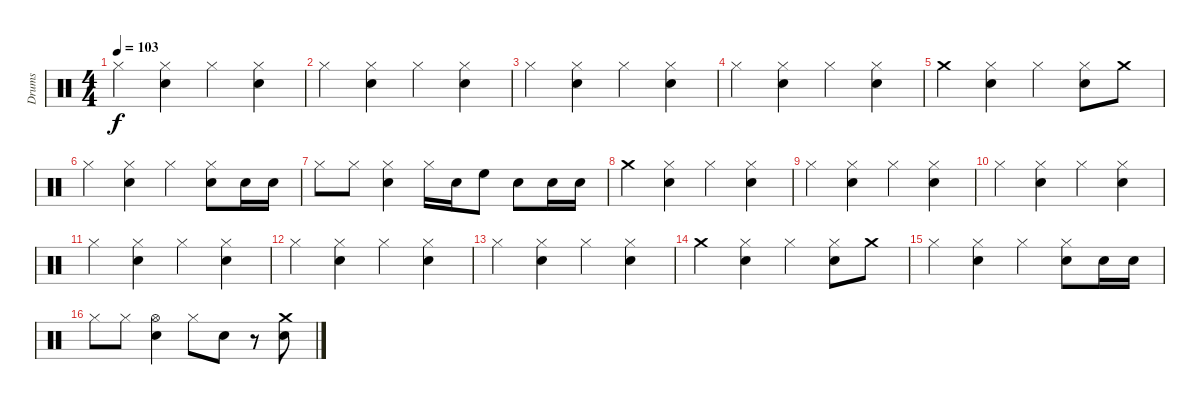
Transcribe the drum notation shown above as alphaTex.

\track ("Drums" "Drums") {instrument percussion}
\staff {score}
\articulation defaults
\ts (4 4)
\tempo 103
\clef neutral
\ks c "Hi-Hat (closed)".4{dy f}
("Hi-Hat (closed)" "Electric Snare (hit)").4 "Hi-Hat (closed)".4 ("Hi-Hat (closed)" "Electric Snare (hit)").4 |
"Hi-Hat (closed)".4 ("Hi-Hat (closed)" "Electric Snare (hit)").4 "Hi-Hat (closed)".4 ("Hi-Hat (closed)" "Electric Snare (hit)").4 |
"Hi-Hat (closed)".4 ("Hi-Hat (closed)" "Electric Snare (hit)").4 "Hi-Hat (closed)".4 ("Hi-Hat (closed)" "Electric Snare (hit)").4 |
"Hi-Hat (closed)".4 ("Hi-Hat (closed)" "Electric Snare (hit)").4 "Hi-Hat (closed)".4 ("Hi-Hat (closed)" "Electric Snare (hit)").4 |
"Crash medium (hit)".4 ("Hi-Hat (closed)" "Electric Snare (hit)").4 "Hi-Hat (closed)".4 ("Hi-Hat (closed)" "Electric Snare (hit)").8 "Crash medium (hit)".8 |
"Hi-Hat (closed)".4 ("Hi-Hat (closed)" "Electric Snare (hit)").4 "Hi-Hat (closed)".4 ("Hi-Hat (closed)" "Electric Snare (hit)").8 "Electric Snare (hit)".16 "Electric Snare (hit)".16 |
"Hi-Hat (closed)".8 "Hi-Hat (closed)".8 ("Hi-Hat (closed)" "Electric Snare (hit)").4 "Hi-Hat (closed)".16 "Electric Snare (hit)".16 "High Floor Tom (hit)".8 "Electric Snare (hit)".8 "Electric Snare (hit)".16 "Electric Snare (hit)".16 |
"Crash medium (hit)".4 ("Hi-Hat (closed)" "Electric Snare (hit)").4 "Hi-Hat (closed)".4 ("Hi-Hat (closed)" "Electric Snare (hit)").4 |
"Hi-Hat (closed)".4 ("Hi-Hat (closed)" "Electric Snare (hit)").4 "Hi-Hat (closed)".4 ("Hi-Hat (closed)" "Electric Snare (hit)").4 |
"Hi-Hat (closed)".4 ("Hi-Hat (closed)" "Electric Snare (hit)").4 "Hi-Hat (closed)".4 ("Hi-Hat (closed)" "Electric Snare (hit)").4 |
"Hi-Hat (closed)".4 ("Hi-Hat (closed)" "Electric Snare (hit)").4 "Hi-Hat (closed)".4 ("Hi-Hat (closed)" "Electric Snare (hit)").4 |
"Hi-Hat (closed)".4 ("Hi-Hat (closed)" "Electric Snare (hit)").4 "Hi-Hat (closed)".4 ("Hi-Hat (closed)" "Electric Snare (hit)").4 |
"Hi-Hat (closed)".4 ("Hi-Hat (closed)" "Electric Snare (hit)").4 "Hi-Hat (closed)".4 ("Hi-Hat (closed)" "Electric Snare (hit)").4 |
"Crash medium (hit)".4 ("Hi-Hat (closed)" "Electric Snare (hit)").4 "Hi-Hat (closed)".4 ("Hi-Hat (closed)" "Electric Snare (hit)").8 "Crash medium (hit)".8 |
"Hi-Hat (closed)".4 ("Hi-Hat (closed)" "Electric Snare (hit)").4 "Hi-Hat (closed)".4 ("Hi-Hat (closed)" "Electric Snare (hit)").8 "Electric Snare (hit)".16 "Electric Snare (hit)".16 |
"Hi-Hat (closed)".8 "Hi-Hat (closed)".8 ("Hi-Hat (open)" "Electric Snare (hit)").4 "Hi-Hat (closed)".8 "Electric Snare (hit)".8 r.8 ("Electric Snare (hit)" "Crash medium (hit)").8
